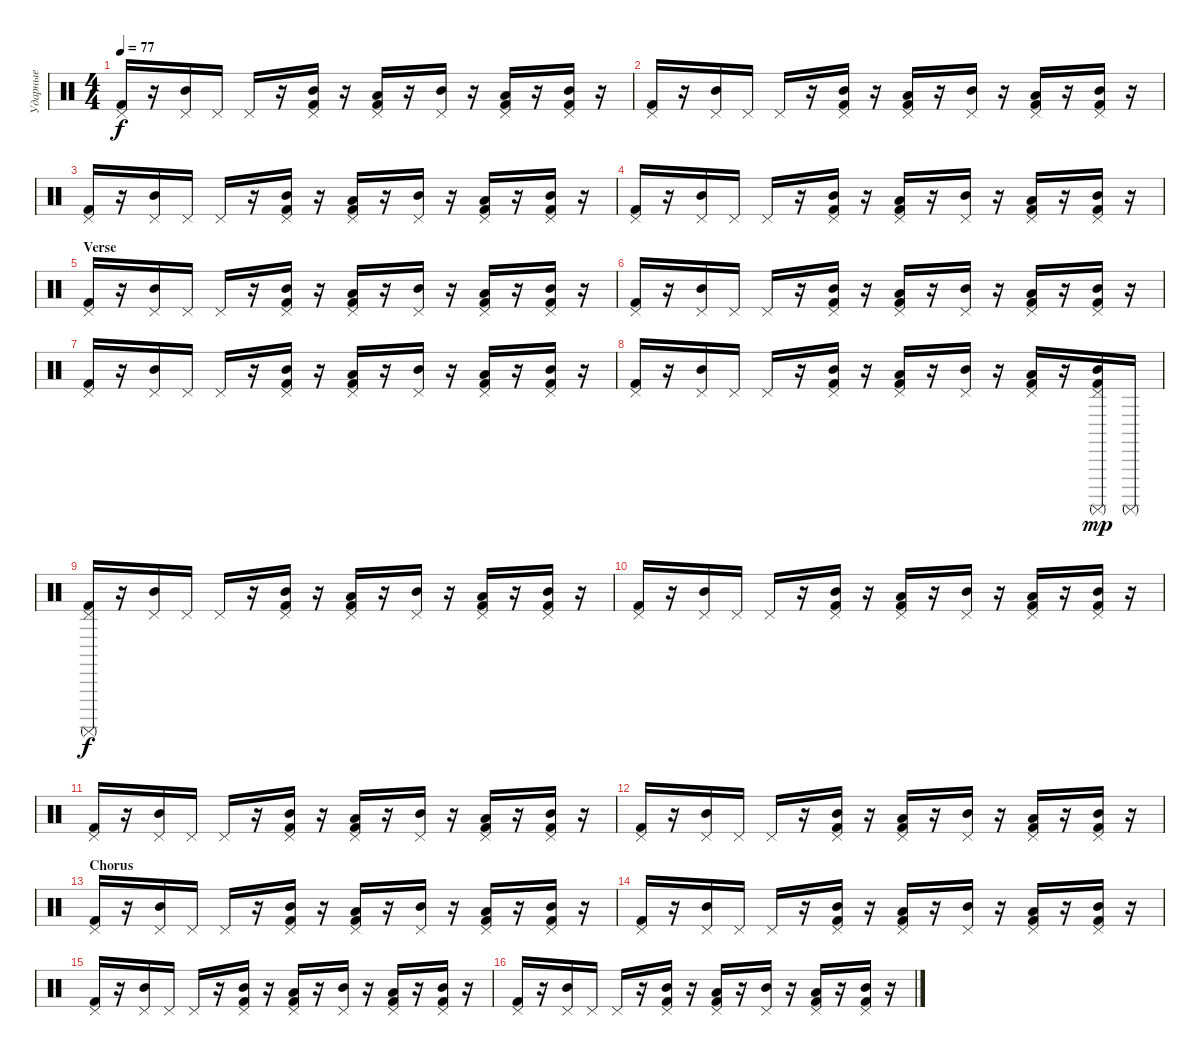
\track ("Ударные" "Ударные") {instrument percussion}
\staff {score}
\articulation defaults
\ts (4 4)
\tempo 77
\clef neutral
\ks c
("Pedal Hi-Hat (hit)" "Kick (hit) 2").16{dy f} r.16 ("Pedal Hi-Hat (hit)" "Mid Tom (hit)").16 "Pedal Hi-Hat (hit)".16 "Pedal Hi-Hat (hit)".16 r.16 ("Pedal Hi-Hat (hit)" "Mid Tom (hit)" "Kick (hit) 2").16 r.16 ("Pedal Hi-Hat (hit)" "Low Tom (hit)" "Kick (hit) 2").16 r.16 ("Pedal Hi-Hat (hit)" "Mid Tom (hit)").16 r.16 ("Pedal Hi-Hat (hit)" "Low Tom (hit)" "Kick (hit) 2").16 r.16 ("Pedal Hi-Hat (hit)" "Mid Tom (hit)" "Kick (hit) 2").16 r.16 |
("Pedal Hi-Hat (hit)" "Kick (hit) 2").16 r.16 ("Pedal Hi-Hat (hit)" "Mid Tom (hit)").16 "Pedal Hi-Hat (hit)".16 "Pedal Hi-Hat (hit)".16 r.16 ("Pedal Hi-Hat (hit)" "Mid Tom (hit)" "Kick (hit) 2").16 r.16 ("Pedal Hi-Hat (hit)" "Low Tom (hit)" "Kick (hit) 2").16 r.16 ("Pedal Hi-Hat (hit)" "Mid Tom (hit)").16 r.16 ("Pedal Hi-Hat (hit)" "Low Tom (hit)" "Kick (hit) 2").16 r.16 ("Pedal Hi-Hat (hit)" "Mid Tom (hit)" "Kick (hit) 2").16 r.16 |
("Pedal Hi-Hat (hit)" "Kick (hit) 2").16 r.16 ("Pedal Hi-Hat (hit)" "Mid Tom (hit)").16 "Pedal Hi-Hat (hit)".16 "Pedal Hi-Hat (hit)".16 r.16 ("Pedal Hi-Hat (hit)" "Mid Tom (hit)" "Kick (hit) 2").16 r.16 ("Pedal Hi-Hat (hit)" "Low Tom (hit)" "Kick (hit) 2").16 r.16 ("Pedal Hi-Hat (hit)" "Mid Tom (hit)").16 r.16 ("Pedal Hi-Hat (hit)" "Low Tom (hit)" "Kick (hit) 2").16 r.16 ("Pedal Hi-Hat (hit)" "Mid Tom (hit)" "Kick (hit) 2").16 r.16 |
("Pedal Hi-Hat (hit)" "Kick (hit) 2").16 r.16 ("Pedal Hi-Hat (hit)" "Mid Tom (hit)").16 "Pedal Hi-Hat (hit)".16 "Pedal Hi-Hat (hit)".16 r.16 ("Pedal Hi-Hat (hit)" "Mid Tom (hit)" "Kick (hit) 2").16 r.16 ("Pedal Hi-Hat (hit)" "Low Tom (hit)" "Kick (hit) 2").16 r.16 ("Pedal Hi-Hat (hit)" "Mid Tom (hit)").16 r.16 ("Pedal Hi-Hat (hit)" "Low Tom (hit)" "Kick (hit) 2").16 r.16 ("Pedal Hi-Hat (hit)" "Mid Tom (hit)" "Kick (hit) 2").16 r.16 |
\section ("" "Verse")
("Pedal Hi-Hat (hit)" "Kick (hit) 2").16 r.16 ("Pedal Hi-Hat (hit)" "Mid Tom (hit)").16 "Pedal Hi-Hat (hit)".16 "Pedal Hi-Hat (hit)".16 r.16 ("Pedal Hi-Hat (hit)" "Mid Tom (hit)" "Kick (hit) 2").16 r.16 ("Pedal Hi-Hat (hit)" "Low Tom (hit)" "Kick (hit) 2").16 r.16 ("Pedal Hi-Hat (hit)" "Mid Tom (hit)").16 r.16 ("Pedal Hi-Hat (hit)" "Low Tom (hit)" "Kick (hit) 2").16 r.16 ("Pedal Hi-Hat (hit)" "Mid Tom (hit)" "Kick (hit) 2").16 r.16 |
("Pedal Hi-Hat (hit)" "Kick (hit) 2").16 r.16 ("Pedal Hi-Hat (hit)" "Mid Tom (hit)").16 "Pedal Hi-Hat (hit)".16 "Pedal Hi-Hat (hit)".16 r.16 ("Pedal Hi-Hat (hit)" "Mid Tom (hit)" "Kick (hit) 2").16 r.16 ("Pedal Hi-Hat (hit)" "Low Tom (hit)" "Kick (hit) 2").16 r.16 ("Pedal Hi-Hat (hit)" "Mid Tom (hit)").16 r.16 ("Pedal Hi-Hat (hit)" "Low Tom (hit)" "Kick (hit) 2").16 r.16 ("Pedal Hi-Hat (hit)" "Mid Tom (hit)" "Kick (hit) 2").16 r.16 |
("Pedal Hi-Hat (hit)" "Kick (hit) 2").16 r.16 ("Pedal Hi-Hat (hit)" "Mid Tom (hit)").16 "Pedal Hi-Hat (hit)".16 "Pedal Hi-Hat (hit)".16 r.16 ("Pedal Hi-Hat (hit)" "Mid Tom (hit)" "Kick (hit) 2").16 r.16 ("Pedal Hi-Hat (hit)" "Low Tom (hit)" "Kick (hit) 2").16 r.16 ("Pedal Hi-Hat (hit)" "Mid Tom (hit)").16 r.16 ("Pedal Hi-Hat (hit)" "Low Tom (hit)" "Kick (hit) 2").16 r.16 ("Pedal Hi-Hat (hit)" "Mid Tom (hit)" "Kick (hit) 2").16 r.16 |
("Pedal Hi-Hat (hit)" "Kick (hit) 2").16 r.16 ("Pedal Hi-Hat (hit)" "Mid Tom (hit)").16 "Pedal Hi-Hat (hit)".16 "Pedal Hi-Hat (hit)".16 r.16 ("Pedal Hi-Hat (hit)" "Mid Tom (hit)" "Kick (hit) 2").16 r.16 ("Pedal Hi-Hat (hit)" "Low Tom (hit)" "Kick (hit) 2").16 r.16 ("Pedal Hi-Hat (hit)" "Mid Tom (hit)").16 r.16 ("Pedal Hi-Hat (hit)" "Low Tom (hit)" "Kick (hit) 2").16 r.16 ("Pedal Hi-Hat (hit)" "Surdo (mute)" "Mid Tom (hit)" "Kick (hit) 2").16{dy mp} "Surdo (mute)".16 |
("Pedal Hi-Hat (hit)" "Surdo (mute)" "Kick (hit) 2").16{dy f} r.16 ("Pedal Hi-Hat (hit)" "Mid Tom (hit)").16 "Pedal Hi-Hat (hit)".16 "Pedal Hi-Hat (hit)".16 r.16 ("Pedal Hi-Hat (hit)" "Mid Tom (hit)" "Kick (hit) 2").16 r.16 ("Pedal Hi-Hat (hit)" "Low Tom (hit)" "Kick (hit) 2").16 r.16 ("Pedal Hi-Hat (hit)" "Mid Tom (hit)").16 r.16 ("Pedal Hi-Hat (hit)" "Low Tom (hit)" "Kick (hit) 2").16 r.16 ("Pedal Hi-Hat (hit)" "Mid Tom (hit)" "Kick (hit) 2").16 r.16 |
("Pedal Hi-Hat (hit)" "Kick (hit) 2").16 r.16 ("Pedal Hi-Hat (hit)" "Mid Tom (hit)").16 "Pedal Hi-Hat (hit)".16 "Pedal Hi-Hat (hit)".16 r.16 ("Pedal Hi-Hat (hit)" "Mid Tom (hit)" "Kick (hit) 2").16 r.16 ("Pedal Hi-Hat (hit)" "Low Tom (hit)" "Kick (hit) 2").16 r.16 ("Pedal Hi-Hat (hit)" "Mid Tom (hit)").16 r.16 ("Pedal Hi-Hat (hit)" "Low Tom (hit)" "Kick (hit) 2").16 r.16 ("Pedal Hi-Hat (hit)" "Mid Tom (hit)" "Kick (hit) 2").16 r.16 |
("Pedal Hi-Hat (hit)" "Kick (hit) 2").16 r.16 ("Pedal Hi-Hat (hit)" "Mid Tom (hit)").16 "Pedal Hi-Hat (hit)".16 "Pedal Hi-Hat (hit)".16 r.16 ("Pedal Hi-Hat (hit)" "Mid Tom (hit)" "Kick (hit) 2").16 r.16 ("Pedal Hi-Hat (hit)" "Low Tom (hit)" "Kick (hit) 2").16 r.16 ("Pedal Hi-Hat (hit)" "Mid Tom (hit)").16 r.16 ("Pedal Hi-Hat (hit)" "Low Tom (hit)" "Kick (hit) 2").16 r.16 ("Pedal Hi-Hat (hit)" "Mid Tom (hit)" "Kick (hit) 2").16 r.16 |
("Pedal Hi-Hat (hit)" "Kick (hit) 2").16 r.16 ("Pedal Hi-Hat (hit)" "Mid Tom (hit)").16 "Pedal Hi-Hat (hit)".16 "Pedal Hi-Hat (hit)".16 r.16 ("Pedal Hi-Hat (hit)" "Mid Tom (hit)" "Kick (hit) 2").16 r.16 ("Pedal Hi-Hat (hit)" "Low Tom (hit)" "Kick (hit) 2").16 r.16 ("Pedal Hi-Hat (hit)" "Mid Tom (hit)").16 r.16 ("Pedal Hi-Hat (hit)" "Low Tom (hit)" "Kick (hit) 2").16 r.16 ("Pedal Hi-Hat (hit)" "Mid Tom (hit)" "Kick (hit) 2").16 r.16 |
\section ("" "Chorus")
("Pedal Hi-Hat (hit)" "Kick (hit) 2").16 r.16 ("Pedal Hi-Hat (hit)" "Mid Tom (hit)").16 "Pedal Hi-Hat (hit)".16 "Pedal Hi-Hat (hit)".16 r.16 ("Pedal Hi-Hat (hit)" "Mid Tom (hit)" "Kick (hit) 2").16 r.16 ("Pedal Hi-Hat (hit)" "Low Tom (hit)" "Kick (hit) 2").16 r.16 ("Pedal Hi-Hat (hit)" "Mid Tom (hit)").16 r.16 ("Pedal Hi-Hat (hit)" "Low Tom (hit)" "Kick (hit) 2").16 r.16 ("Pedal Hi-Hat (hit)" "Mid Tom (hit)" "Kick (hit) 2").16 r.16 |
("Pedal Hi-Hat (hit)" "Kick (hit) 2").16 r.16 ("Pedal Hi-Hat (hit)" "Mid Tom (hit)").16 "Pedal Hi-Hat (hit)".16 "Pedal Hi-Hat (hit)".16 r.16 ("Pedal Hi-Hat (hit)" "Mid Tom (hit)" "Kick (hit) 2").16 r.16 ("Pedal Hi-Hat (hit)" "Low Tom (hit)" "Kick (hit) 2").16 r.16 ("Pedal Hi-Hat (hit)" "Mid Tom (hit)").16 r.16 ("Pedal Hi-Hat (hit)" "Low Tom (hit)" "Kick (hit) 2").16 r.16 ("Pedal Hi-Hat (hit)" "Mid Tom (hit)" "Kick (hit) 2").16 r.16 |
("Pedal Hi-Hat (hit)" "Kick (hit) 2").16 r.16 ("Pedal Hi-Hat (hit)" "Mid Tom (hit)").16 "Pedal Hi-Hat (hit)".16 "Pedal Hi-Hat (hit)".16 r.16 ("Pedal Hi-Hat (hit)" "Mid Tom (hit)" "Kick (hit) 2").16 r.16 ("Pedal Hi-Hat (hit)" "Low Tom (hit)" "Kick (hit) 2").16 r.16 ("Pedal Hi-Hat (hit)" "Mid Tom (hit)").16 r.16 ("Pedal Hi-Hat (hit)" "Low Tom (hit)" "Kick (hit) 2").16 r.16 ("Pedal Hi-Hat (hit)" "Mid Tom (hit)" "Kick (hit) 2").16 r.16 |
("Pedal Hi-Hat (hit)" "Kick (hit) 2").16 r.16 ("Pedal Hi-Hat (hit)" "Mid Tom (hit)").16 "Pedal Hi-Hat (hit)".16 "Pedal Hi-Hat (hit)".16 r.16 ("Pedal Hi-Hat (hit)" "Mid Tom (hit)" "Kick (hit) 2").16 r.16 ("Pedal Hi-Hat (hit)" "Low Tom (hit)" "Kick (hit) 2").16 r.16 ("Pedal Hi-Hat (hit)" "Mid Tom (hit)").16 r.16 ("Pedal Hi-Hat (hit)" "Low Tom (hit)" "Kick (hit) 2").16 r.16 ("Pedal Hi-Hat (hit)" "Mid Tom (hit)" "Kick (hit) 2").16 r.16
